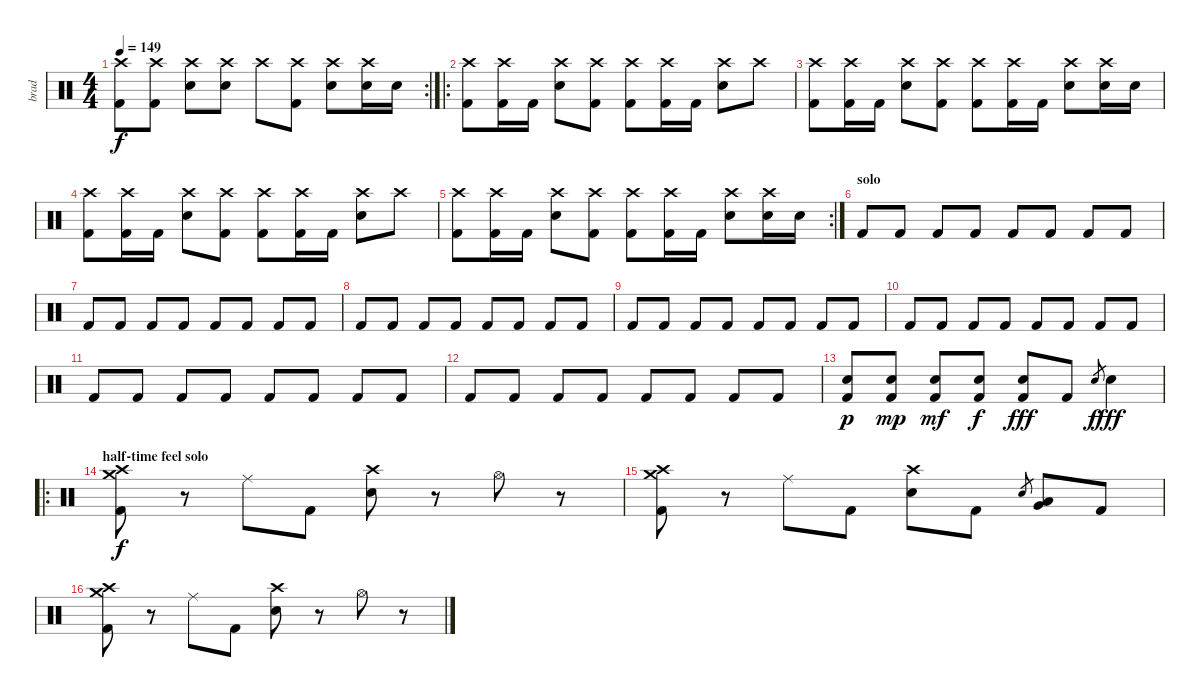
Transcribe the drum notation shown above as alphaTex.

\track ("brad" "brad") {instrument percussion}
\staff {score}
\articulation defaults
\rc 2
\ts (4 4)
\tempo 149
\clef neutral
\ks c
("Crash high (hit)" "Kick (hit) 2").8{dy f} ("Crash high (hit)" "Kick (hit) 2").8 ("Crash high (hit)" "Electric Snare (hit)").8 ("Crash high (hit)" "Electric Snare (hit)").8 "Crash high (hit)".8 ("Crash high (hit)" "Kick (hit) 2").8 ("Crash high (hit)" "Electric Snare (hit)").8 ("Crash high (hit)" "Electric Snare (hit)").16 "Electric Snare (hit)".16 |
\ro
("Crash high (hit)" "Kick (hit) 2").8 ("Crash high (hit)" "Kick (hit) 2").16 "Kick (hit) 2".16 ("Crash high (hit)" "Electric Snare (hit)").8 ("Crash high (hit)" "Kick (hit) 2").8 ("Crash high (hit)" "Kick (hit) 2").8 ("Crash high (hit)" "Kick (hit) 2").16 "Kick (hit) 2".16 ("Crash high (hit)" "Electric Snare (hit)").8 "Crash high (hit)".8 |
("Crash high (hit)" "Kick (hit) 2").8 ("Crash high (hit)" "Kick (hit) 2").16 "Kick (hit) 2".16 ("Crash high (hit)" "Electric Snare (hit)").8 ("Crash high (hit)" "Kick (hit) 2").8 ("Crash high (hit)" "Kick (hit) 2").8 ("Crash high (hit)" "Kick (hit) 2").16 "Kick (hit) 2".16 ("Crash high (hit)" "Electric Snare (hit)").8 ("Crash high (hit)" "Electric Snare (hit)").16 "Electric Snare (hit)".16 |
("Crash high (hit)" "Kick (hit) 2").8 ("Crash high (hit)" "Kick (hit) 2").16 "Kick (hit) 2".16 ("Crash high (hit)" "Electric Snare (hit)").8 ("Crash high (hit)" "Kick (hit) 2").8 ("Crash high (hit)" "Kick (hit) 2").8 ("Crash high (hit)" "Kick (hit) 2").16 "Kick (hit) 2".16 ("Crash high (hit)" "Electric Snare (hit)").8 "Crash high (hit)".8 |
\rc 2
("Crash high (hit)" "Kick (hit) 2").8 ("Crash high (hit)" "Kick (hit) 2").16 "Kick (hit) 2".16 ("Crash high (hit)" "Electric Snare (hit)").8 ("Crash high (hit)" "Kick (hit) 2").8 ("Crash high (hit)" "Kick (hit) 2").8 ("Crash high (hit)" "Kick (hit) 2").16 "Kick (hit) 2".16 ("Crash high (hit)" "Electric Snare (hit)").8 ("Crash high (hit)" "Electric Snare (hit)").16 "Electric Snare (hit)".16 |
\section ("" "solo")
"Kick (hit) 2".8 "Kick (hit) 2".8 "Kick (hit) 2".8 "Kick (hit) 2".8 "Kick (hit) 2".8 "Kick (hit) 2".8 "Kick (hit) 2".8 "Kick (hit) 2".8 |
"Kick (hit) 2".8 "Kick (hit) 2".8 "Kick (hit) 2".8 "Kick (hit) 2".8 "Kick (hit) 2".8 "Kick (hit) 2".8 "Kick (hit) 2".8 "Kick (hit) 2".8 |
"Kick (hit) 2".8 "Kick (hit) 2".8 "Kick (hit) 2".8 "Kick (hit) 2".8 "Kick (hit) 2".8 "Kick (hit) 2".8 "Kick (hit) 2".8 "Kick (hit) 2".8 |
"Kick (hit) 2".8 "Kick (hit) 2".8 "Kick (hit) 2".8 "Kick (hit) 2".8 "Kick (hit) 2".8 "Kick (hit) 2".8 "Kick (hit) 2".8 "Kick (hit) 2".8 |
"Kick (hit) 2".8 "Kick (hit) 2".8 "Kick (hit) 2".8 "Kick (hit) 2".8 "Kick (hit) 2".8 "Kick (hit) 2".8 "Kick (hit) 2".8 "Kick (hit) 2".8 |
"Kick (hit) 2".8 "Kick (hit) 2".8 "Kick (hit) 2".8 "Kick (hit) 2".8 "Kick (hit) 2".8 "Kick (hit) 2".8 "Kick (hit) 2".8 "Kick (hit) 2".8 |
"Kick (hit) 2".8 "Kick (hit) 2".8 "Kick (hit) 2".8 "Kick (hit) 2".8 "Kick (hit) 2".8 "Kick (hit) 2".8 "Kick (hit) 2".8 "Kick (hit) 2".8 |
("Electric Snare (hit)" "Kick (hit) 2").8{dy p} ("Electric Snare (hit)" "Kick (hit) 2").8{dy mp} ("Electric Snare (hit)" "Kick (hit) 2").8{dy mf} ("Electric Snare (hit)" "Kick (hit) 2").8{dy f} ("Electric Snare (hit)" "Kick (hit) 2").8{dy fff} "Kick (hit) 2".8 "Electric Snare (hit)".8{gr dy f} "Electric Snare (hit)".4{dy fff} |
\ro
\section ("" "half-time feel solo")
("Crash medium (hit)" "Crash high (hit)" "Kick (hit) 2").8{dy f} r.8 "Ride (middle)".8 "Kick (hit) 2".8 ("Crash high (hit)" "Electric Snare (hit)").8 r.8 "Hi-Hat (open)".8 r.8 |
("Crash medium (hit)" "Crash high (hit)" "Kick (hit) 2").8 r.8 "Ride (middle)".8 "Kick (hit) 2".8 ("Crash high (hit)" "Electric Snare (hit)").8 "Kick (hit) 2".8 "Electric Snare (hit)".8{gr} ("Very Low Tom (hit)" "Low Floor Tom (hit)").8 "Kick (hit) 2".8 |
("Crash medium (hit)" "Crash high (hit)" "Kick (hit) 2").8 r.8 "Ride (middle)".8 "Kick (hit) 2".8 ("Crash high (hit)" "Electric Snare (hit)").8 r.8 "Hi-Hat (open)".8 r.8
